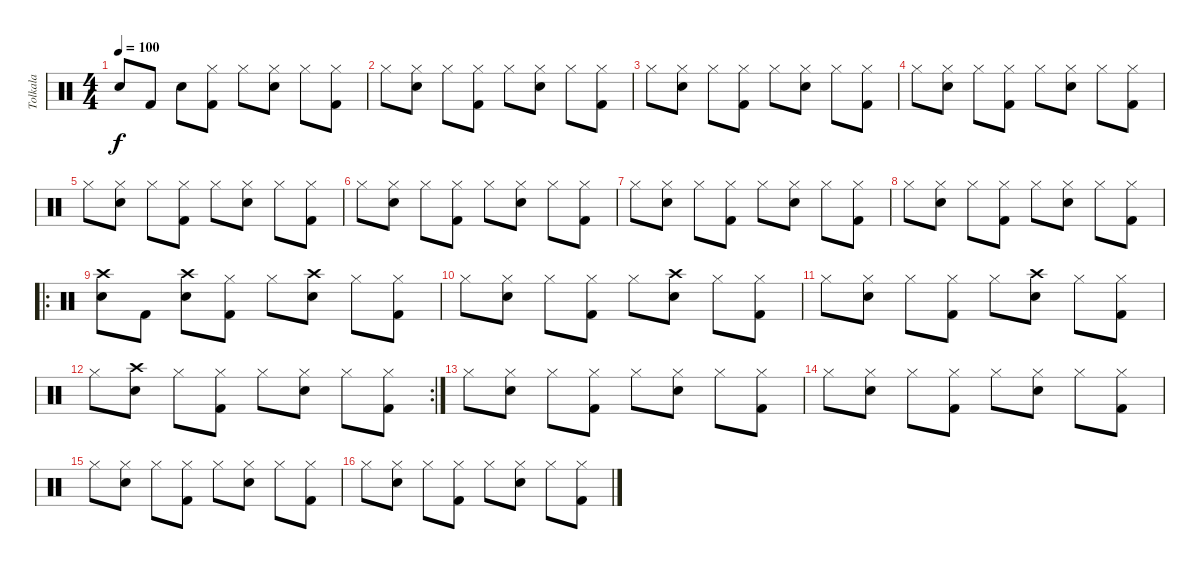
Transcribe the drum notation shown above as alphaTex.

\track ("Tolkala" "Tolkala") {instrument percussion}
\staff {score}
\articulation defaults
\ts (4 4)
\tempo 100
\clef neutral
\ks c "Snare (hit) 2".8{dy f} "Kick (hit) 2".8 "Snare (hit) 2".8
("Hi-Hat (closed)" "Kick (hit) 2").8 "Hi-Hat (closed)".8 ("Hi-Hat (closed)" "Snare (hit) 2").8 "Hi-Hat (closed)".8 ("Hi-Hat (closed)" "Kick (hit) 2").8 |
"Hi-Hat (closed)".8 ("Hi-Hat (closed)" "Snare (hit) 2").8 "Hi-Hat (closed)".8 ("Hi-Hat (closed)" "Kick (hit) 2").8 "Hi-Hat (closed)".8 ("Hi-Hat (closed)" "Snare (hit) 2").8 "Hi-Hat (closed)".8 ("Hi-Hat (closed)" "Kick (hit) 2").8 |
"Hi-Hat (closed)".8 ("Hi-Hat (closed)" "Snare (hit) 2").8 "Hi-Hat (closed)".8 ("Hi-Hat (closed)" "Kick (hit) 2").8 "Hi-Hat (closed)".8 ("Hi-Hat (closed)" "Snare (hit) 2").8 "Hi-Hat (closed)".8 ("Hi-Hat (closed)" "Kick (hit) 2").8 |
"Hi-Hat (closed)".8 ("Hi-Hat (closed)" "Snare (hit) 2").8 "Hi-Hat (closed)".8 ("Hi-Hat (closed)" "Kick (hit) 2").8 "Hi-Hat (closed)".8 ("Hi-Hat (closed)" "Snare (hit) 2").8 "Hi-Hat (closed)".8 ("Hi-Hat (closed)" "Kick (hit) 2").8 |
"Hi-Hat (closed)".8 ("Hi-Hat (closed)" "Snare (hit) 2").8 "Hi-Hat (closed)".8 ("Hi-Hat (closed)" "Kick (hit) 2").8 "Hi-Hat (closed)".8 ("Hi-Hat (closed)" "Snare (hit) 2").8 "Hi-Hat (closed)".8 ("Hi-Hat (closed)" "Kick (hit) 2").8 |
"Hi-Hat (closed)".8 ("Hi-Hat (closed)" "Snare (hit) 2").8 "Hi-Hat (closed)".8 ("Hi-Hat (closed)" "Kick (hit) 2").8 "Hi-Hat (closed)".8 ("Hi-Hat (closed)" "Snare (hit) 2").8 "Hi-Hat (closed)".8 ("Hi-Hat (closed)" "Kick (hit) 2").8 |
"Hi-Hat (closed)".8 ("Hi-Hat (closed)" "Snare (hit) 2").8 "Hi-Hat (closed)".8 ("Hi-Hat (closed)" "Kick (hit) 2").8 "Hi-Hat (closed)".8 ("Hi-Hat (closed)" "Snare (hit) 2").8 "Hi-Hat (closed)".8 ("Hi-Hat (closed)" "Kick (hit) 2").8 |
"Hi-Hat (closed)".8 ("Hi-Hat (closed)" "Snare (hit) 2").8 "Hi-Hat (closed)".8 ("Hi-Hat (closed)" "Kick (hit) 2").8 "Hi-Hat (closed)".8 ("Hi-Hat (closed)" "Snare (hit) 2").8 "Hi-Hat (closed)".8 ("Hi-Hat (closed)" "Kick (hit) 2").8 |
\ro
("Crash high (hit)" "Snare (hit) 2").8 "Kick (hit) 2".8 ("Crash high (hit)" "Snare (hit) 2").8 ("Hi-Hat (closed)" "Kick (hit) 2").8 "Hi-Hat (closed)".8 ("Crash high (hit)" "Snare (hit) 2").8 "Hi-Hat (closed)".8 ("Hi-Hat (closed)" "Kick (hit) 2").8 |
"Hi-Hat (closed)".8 ("Hi-Hat (closed)" "Snare (hit) 2").8 "Hi-Hat (closed)".8 ("Hi-Hat (closed)" "Kick (hit) 2").8 "Hi-Hat (closed)".8 ("Crash high (hit)" "Snare (hit) 2").8 "Hi-Hat (closed)".8 ("Hi-Hat (closed)" "Kick (hit) 2").8 |
"Hi-Hat (closed)".8 ("Hi-Hat (closed)" "Snare (hit) 2").8 "Hi-Hat (closed)".8 ("Hi-Hat (closed)" "Kick (hit) 2").8 "Hi-Hat (closed)".8 ("Crash high (hit)" "Snare (hit) 2").8 "Hi-Hat (closed)".8 ("Hi-Hat (closed)" "Kick (hit) 2").8 |
\rc 2 "Hi-Hat (closed)".8
("Crash high (hit)" "Snare (hit) 2").8 "Hi-Hat (closed)".8 ("Hi-Hat (closed)" "Kick (hit) 2").8 "Hi-Hat (closed)".8 ("Hi-Hat (closed)" "Snare (hit) 2").8 "Hi-Hat (closed)".8 ("Hi-Hat (closed)" "Kick (hit) 2").8 |
"Hi-Hat (closed)".8 ("Hi-Hat (closed)" "Snare (hit) 2").8 "Hi-Hat (closed)".8 ("Hi-Hat (closed)" "Kick (hit) 2").8 "Hi-Hat (closed)".8 ("Hi-Hat (closed)" "Snare (hit) 2").8 "Hi-Hat (closed)".8 ("Hi-Hat (closed)" "Kick (hit) 2").8 |
"Hi-Hat (closed)".8 ("Hi-Hat (closed)" "Snare (hit) 2").8 "Hi-Hat (closed)".8 ("Hi-Hat (closed)" "Kick (hit) 2").8 "Hi-Hat (closed)".8 ("Hi-Hat (closed)" "Snare (hit) 2").8 "Hi-Hat (closed)".8 ("Hi-Hat (closed)" "Kick (hit) 2").8 |
"Hi-Hat (closed)".8 ("Hi-Hat (closed)" "Snare (hit) 2").8 "Hi-Hat (closed)".8 ("Hi-Hat (closed)" "Kick (hit) 2").8 "Hi-Hat (closed)".8 ("Hi-Hat (closed)" "Snare (hit) 2").8 "Hi-Hat (closed)".8 ("Hi-Hat (closed)" "Kick (hit) 2").8 |
"Hi-Hat (closed)".8 ("Hi-Hat (closed)" "Snare (hit) 2").8 "Hi-Hat (closed)".8 ("Hi-Hat (closed)" "Kick (hit) 2").8 "Hi-Hat (closed)".8 ("Hi-Hat (closed)" "Snare (hit) 2").8 "Hi-Hat (closed)".8 ("Hi-Hat (closed)" "Kick (hit) 2").8
